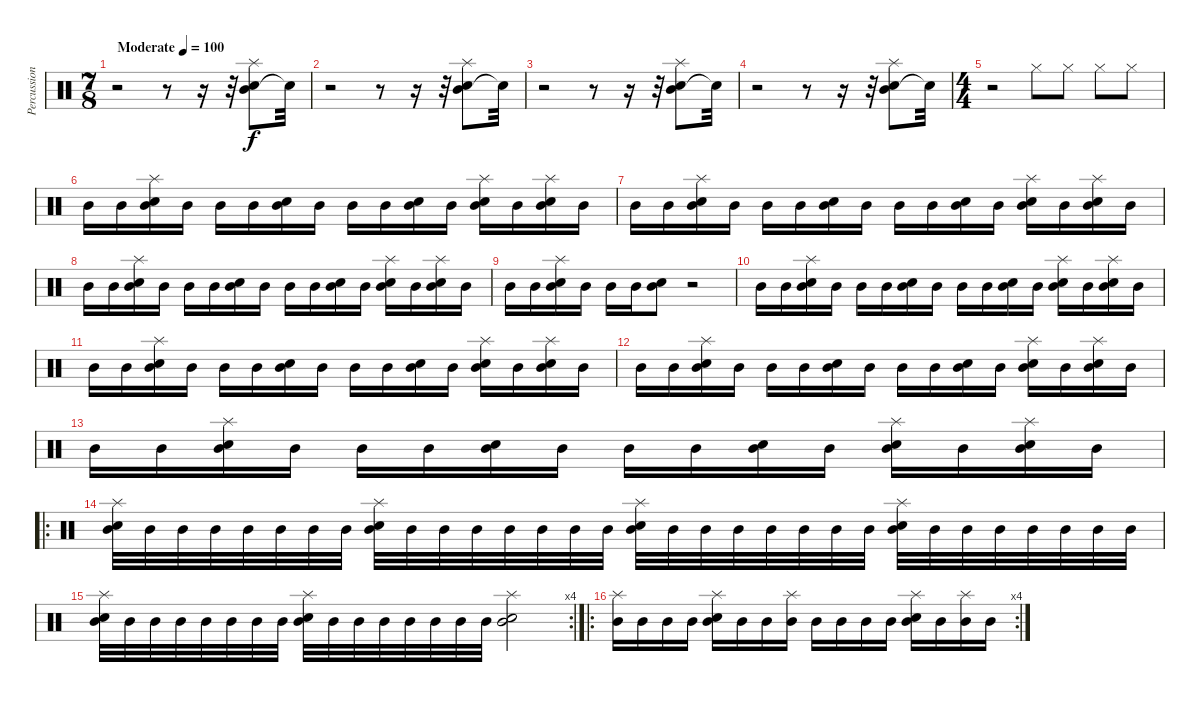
\track ("Percussion" "Percussion") {instrument percussion}
\staff {score}
\articulation defaults
\ts (7 8)
\tempo (100 "Moderate")
\clef neutral
\ks c
r.2{dy f} r.8 r.16 r.32 ("Mid Tom (hit)" "Electric Snare (hit)" "Splash (hit)").8 "Snare (hit)"{t}.32 |
r.2 r.8 r.16 r.32 ("Mid Tom (hit)" "Electric Snare (hit)" "Splash (hit)").8 "Snare (hit)"{t}.32 |
r.2 r.8 r.16 r.32 ("Mid Tom (hit)" "Electric Snare (hit)" "Splash (hit)").8 "Snare (hit)"{t}.32 |
r.2 r.8 r.16 r.32 ("Mid Tom (hit)" "Electric Snare (hit)" "Splash (hit)").8 "Snare (hit)"{t}.32 |
\ts (4 4)
r.2 "Hi-Hat (closed)".8 "Hi-Hat (closed)".8 "Hi-Hat (closed)".8 "Hi-Hat (closed)".8 |
"Mid Tom (hit)".16 "Mid Tom (hit)".16 ("Mid Tom (hit)" "Electric Snare (hit)" "Splash (hit)").16 "Mid Tom (hit)".16 "Mid Tom (hit)".16 "Mid Tom (hit)".16 ("Mid Tom (hit)" "Electric Snare (hit)").16 "Mid Tom (hit)".16 "Mid Tom (hit)".16 "Mid Tom (hit)".16 ("Mid Tom (hit)" "Electric Snare (hit)").16 "Mid Tom (hit)".16 ("Mid Tom (hit)" "Electric Snare (hit)" "Splash (hit)").16 "Mid Tom (hit)".16 ("Mid Tom (hit)" "Electric Snare (hit)" "Splash (hit)").16 "Mid Tom (hit)".16 |
"Mid Tom (hit)".16 "Mid Tom (hit)".16 ("Mid Tom (hit)" "Electric Snare (hit)" "Splash (hit)").16 "Mid Tom (hit)".16 "Mid Tom (hit)".16 "Mid Tom (hit)".16 ("Mid Tom (hit)" "Electric Snare (hit)").16 "Mid Tom (hit)".16 "Mid Tom (hit)".16 "Mid Tom (hit)".16 ("Mid Tom (hit)" "Electric Snare (hit)").16 "Mid Tom (hit)".16 ("Mid Tom (hit)" "Electric Snare (hit)" "Splash (hit)").16 "Mid Tom (hit)".16 ("Mid Tom (hit)" "Electric Snare (hit)" "Splash (hit)").16 "Mid Tom (hit)".16 |
"Mid Tom (hit)".16 "Mid Tom (hit)".16 ("Mid Tom (hit)" "Electric Snare (hit)" "Splash (hit)").16 "Mid Tom (hit)".16 "Mid Tom (hit)".16 "Mid Tom (hit)".16 ("Mid Tom (hit)" "Electric Snare (hit)").16 "Mid Tom (hit)".16 "Mid Tom (hit)".16 "Mid Tom (hit)".16 ("Mid Tom (hit)" "Electric Snare (hit)").16 "Mid Tom (hit)".16 ("Mid Tom (hit)" "Electric Snare (hit)" "Splash (hit)").16 "Mid Tom (hit)".16 ("Mid Tom (hit)" "Electric Snare (hit)" "Splash (hit)").16 "Mid Tom (hit)".16 |
"Mid Tom (hit)".16 "Mid Tom (hit)".16 ("Mid Tom (hit)" "Electric Snare (hit)" "Splash (hit)").16 "Mid Tom (hit)".16 "Mid Tom (hit)".16 "Mid Tom (hit)".16 ("Mid Tom (hit)" "Electric Snare (hit)").8 r.2 |
"Mid Tom (hit)".16 "Mid Tom (hit)".16 ("Mid Tom (hit)" "Electric Snare (hit)" "Splash (hit)").16 "Mid Tom (hit)".16 "Mid Tom (hit)".16 "Mid Tom (hit)".16 ("Mid Tom (hit)" "Electric Snare (hit)").16 "Mid Tom (hit)".16 "Mid Tom (hit)".16 "Mid Tom (hit)".16 ("Mid Tom (hit)" "Electric Snare (hit)").16 "Mid Tom (hit)".16 ("Mid Tom (hit)" "Electric Snare (hit)" "Splash (hit)").16 "Mid Tom (hit)".16 ("Mid Tom (hit)" "Electric Snare (hit)" "Splash (hit)").16 "Mid Tom (hit)".16 |
"Mid Tom (hit)".16 "Mid Tom (hit)".16 ("Mid Tom (hit)" "Electric Snare (hit)" "Splash (hit)").16 "Mid Tom (hit)".16 "Mid Tom (hit)".16 "Mid Tom (hit)".16 ("Mid Tom (hit)" "Electric Snare (hit)").16 "Mid Tom (hit)".16 "Mid Tom (hit)".16 "Mid Tom (hit)".16 ("Mid Tom (hit)" "Electric Snare (hit)").16 "Mid Tom (hit)".16 ("Mid Tom (hit)" "Electric Snare (hit)" "Splash (hit)").16 "Mid Tom (hit)".16 ("Mid Tom (hit)" "Electric Snare (hit)" "Splash (hit)").16 "Mid Tom (hit)".16 |
"Mid Tom (hit)".16 "Mid Tom (hit)".16 ("Mid Tom (hit)" "Electric Snare (hit)" "Splash (hit)").16 "Mid Tom (hit)".16 "Mid Tom (hit)".16 "Mid Tom (hit)".16 ("Mid Tom (hit)" "Electric Snare (hit)").16 "Mid Tom (hit)".16 "Mid Tom (hit)".16 "Mid Tom (hit)".16 ("Mid Tom (hit)" "Electric Snare (hit)").16 "Mid Tom (hit)".16 ("Mid Tom (hit)" "Electric Snare (hit)" "Splash (hit)").16 "Mid Tom (hit)".16 ("Mid Tom (hit)" "Electric Snare (hit)" "Splash (hit)").16 "Mid Tom (hit)".16 |
"Mid Tom (hit)".16 "Mid Tom (hit)".16 ("Mid Tom (hit)" "Electric Snare (hit)" "Splash (hit)").16 "Mid Tom (hit)".16 "Mid Tom (hit)".16 "Mid Tom (hit)".16 ("Mid Tom (hit)" "Electric Snare (hit)").16 "Mid Tom (hit)".16 "Mid Tom (hit)".16 "Mid Tom (hit)".16 ("Mid Tom (hit)" "Electric Snare (hit)").16 "Mid Tom (hit)".16 ("Mid Tom (hit)" "Electric Snare (hit)" "Splash (hit)").16 "Mid Tom (hit)".16 ("Mid Tom (hit)" "Electric Snare (hit)" "Splash (hit)").16 "Mid Tom (hit)".16 |
\ro
("Mid Tom (hit)" "Electric Snare (hit)" "Splash (hit)").32 "Mid Tom (hit)".32 "Mid Tom (hit)".32 "Mid Tom (hit)".32 "Mid Tom (hit)".32 "Mid Tom (hit)".32 "Mid Tom (hit)".32 "Mid Tom (hit)".32 ("Mid Tom (hit)" "Electric Snare (hit)" "Splash (hit)").32 "Mid Tom (hit)".32 "Mid Tom (hit)".32 "Mid Tom (hit)".32 "Mid Tom (hit)".32 "Mid Tom (hit)".32 "Mid Tom (hit)".32 "Mid Tom (hit)".32 ("Mid Tom (hit)" "Electric Snare (hit)" "Splash (hit)").32 "Mid Tom (hit)".32 "Mid Tom (hit)".32 "Mid Tom (hit)".32 "Mid Tom (hit)".32 "Mid Tom (hit)".32 "Mid Tom (hit)".32 "Mid Tom (hit)".32 ("Mid Tom (hit)" "Electric Snare (hit)" "Splash (hit)").32 "Mid Tom (hit)".32 "Mid Tom (hit)".32 "Mid Tom (hit)".32 "Mid Tom (hit)".32 "Mid Tom (hit)".32 "Mid Tom (hit)".32 "Mid Tom (hit)".32 |
\rc 4
("Mid Tom (hit)" "Electric Snare (hit)" "Splash (hit)").32 "Mid Tom (hit)".32 "Mid Tom (hit)".32 "Mid Tom (hit)".32 "Mid Tom (hit)".32 "Mid Tom (hit)".32 "Mid Tom (hit)".32 "Mid Tom (hit)".32 ("Mid Tom (hit)" "Electric Snare (hit)" "Splash (hit)").32 "Mid Tom (hit)".32 "Mid Tom (hit)".32 "Mid Tom (hit)".32 "Mid Tom (hit)".32 "Mid Tom (hit)".32 "Mid Tom (hit)".32 "Mid Tom (hit)".32 ("Mid Tom (hit)" "Electric Snare (hit)" "Splash (hit)").2 |
\ro
\rc 4
("Mid Tom (hit)" "Splash (hit)").16 "Mid Tom (hit)".16 "Mid Tom (hit)".16 "Mid Tom (hit)".16 ("Mid Tom (hit)" "Electric Snare (hit)" "Splash (hit)").16 "Mid Tom (hit)".16 "Mid Tom (hit)".16 ("Mid Tom (hit)" "Splash (hit)").16 "Mid Tom (hit)".16 "Mid Tom (hit)".16 "Mid Tom (hit)".16 "Mid Tom (hit)".16 ("Mid Tom (hit)" "Electric Snare (hit)" "Splash (hit)").16 "Mid Tom (hit)".16 ("Mid Tom (hit)" "Splash (hit)").16 "Mid Tom (hit)".16
